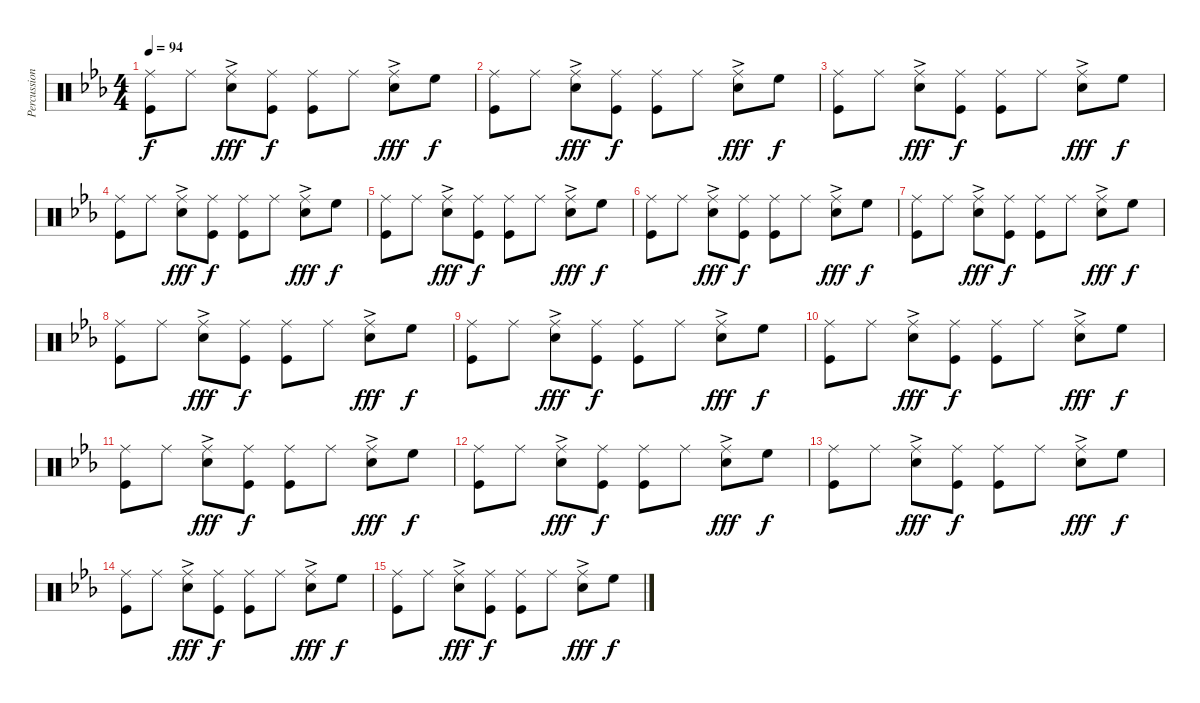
\track ("Percussion" "Percussion") {instrument percussion}
\staff {score}
\articulation defaults
\ts (4 4)
\tempo 94
\clef neutral
\ks eb
("Ride (middle)" "Kick (hit)").8{dy f} "Ride (middle)".8 ("Ride (middle)"{ac} "Snare (hit) 2"{ac}).8{dy fff} ("Ride (middle)" "Kick (hit)").8{dy f} ("Ride (middle)" "Kick (hit)").8 "Ride (middle)".8 ("Ride (middle)"{ac} "Snare (hit) 2"{ac}).8{dy fff} "High Floor Tom (hit)".8{dy f} |
("Ride (middle)" "Kick (hit)").8 "Ride (middle)".8 ("Ride (middle)"{ac} "Snare (hit) 2"{ac}).8{dy fff} ("Ride (middle)" "Kick (hit)").8{dy f} ("Ride (middle)" "Kick (hit)").8 "Ride (middle)".8 ("Ride (middle)"{ac} "Snare (hit) 2"{ac}).8{dy fff} "High Floor Tom (hit)".8{dy f} |
("Ride (middle)" "Kick (hit)").8 "Ride (middle)".8 ("Ride (middle)"{ac} "Snare (hit) 2"{ac}).8{dy fff} ("Ride (middle)" "Kick (hit)").8{dy f} ("Ride (middle)" "Kick (hit)").8 "Ride (middle)".8 ("Ride (middle)"{ac} "Snare (hit) 2"{ac}).8{dy fff} "High Floor Tom (hit)".8{dy f} |
("Ride (middle)" "Kick (hit)").8 "Ride (middle)".8 ("Ride (middle)"{ac} "Snare (hit) 2"{ac}).8{dy fff} ("Ride (middle)" "Kick (hit)").8{dy f} ("Ride (middle)" "Kick (hit)").8 "Ride (middle)".8 ("Ride (middle)"{ac} "Snare (hit) 2"{ac}).8{dy fff} "High Floor Tom (hit)".8{dy f} |
("Ride (middle)" "Kick (hit)").8 "Ride (middle)".8 ("Ride (middle)"{ac} "Snare (hit) 2"{ac}).8{dy fff} ("Ride (middle)" "Kick (hit)").8{dy f} ("Ride (middle)" "Kick (hit)").8 "Ride (middle)".8 ("Ride (middle)"{ac} "Snare (hit) 2"{ac}).8{dy fff} "High Floor Tom (hit)".8{dy f} |
("Ride (middle)" "Kick (hit)").8 "Ride (middle)".8 ("Ride (middle)"{ac} "Snare (hit) 2"{ac}).8{dy fff} ("Ride (middle)" "Kick (hit)").8{dy f} ("Ride (middle)" "Kick (hit)").8 "Ride (middle)".8 ("Ride (middle)"{ac} "Snare (hit) 2"{ac}).8{dy fff} "High Floor Tom (hit)".8{dy f} |
("Ride (middle)" "Kick (hit)").8 "Ride (middle)".8 ("Ride (middle)"{ac} "Snare (hit) 2"{ac}).8{dy fff} ("Ride (middle)" "Kick (hit)").8{dy f} ("Ride (middle)" "Kick (hit)").8 "Ride (middle)".8 ("Ride (middle)"{ac} "Snare (hit) 2"{ac}).8{dy fff} "High Floor Tom (hit)".8{dy f} |
("Ride (middle)" "Kick (hit)").8 "Ride (middle)".8 ("Ride (middle)"{ac} "Snare (hit) 2"{ac}).8{dy fff} ("Ride (middle)" "Kick (hit)").8{dy f} ("Ride (middle)" "Kick (hit)").8 "Ride (middle)".8 ("Ride (middle)"{ac} "Snare (hit) 2"{ac}).8{dy fff} "High Floor Tom (hit)".8{dy f} |
("Ride (middle)" "Kick (hit)").8 "Ride (middle)".8 ("Ride (middle)"{ac} "Snare (hit) 2"{ac}).8{dy fff} ("Ride (middle)" "Kick (hit)").8{dy f} ("Ride (middle)" "Kick (hit)").8 "Ride (middle)".8 ("Ride (middle)"{ac} "Snare (hit) 2"{ac}).8{dy fff} "High Floor Tom (hit)".8{dy f} |
("Ride (middle)" "Kick (hit)").8 "Ride (middle)".8 ("Ride (middle)"{ac} "Snare (hit) 2"{ac}).8{dy fff} ("Ride (middle)" "Kick (hit)").8{dy f} ("Ride (middle)" "Kick (hit)").8 "Ride (middle)".8 ("Ride (middle)"{ac} "Snare (hit) 2"{ac}).8{dy fff} "High Floor Tom (hit)".8{dy f} |
("Ride (middle)" "Kick (hit)").8 "Ride (middle)".8 ("Ride (middle)"{ac} "Snare (hit) 2"{ac}).8{dy fff} ("Ride (middle)" "Kick (hit)").8{dy f} ("Ride (middle)" "Kick (hit)").8 "Ride (middle)".8 ("Ride (middle)"{ac} "Snare (hit) 2"{ac}).8{dy fff} "High Floor Tom (hit)".8{dy f} |
("Ride (middle)" "Kick (hit)").8 "Ride (middle)".8 ("Ride (middle)"{ac} "Snare (hit) 2"{ac}).8{dy fff} ("Ride (middle)" "Kick (hit)").8{dy f} ("Ride (middle)" "Kick (hit)").8 "Ride (middle)".8 ("Ride (middle)"{ac} "Snare (hit) 2"{ac}).8{dy fff} "High Floor Tom (hit)".8{dy f} |
("Ride (middle)" "Kick (hit)").8 "Ride (middle)".8 ("Ride (middle)"{ac} "Snare (hit) 2"{ac}).8{dy fff} ("Ride (middle)" "Kick (hit)").8{dy f} ("Ride (middle)" "Kick (hit)").8 "Ride (middle)".8 ("Ride (middle)"{ac} "Snare (hit) 2"{ac}).8{dy fff} "High Floor Tom (hit)".8{dy f} |
("Ride (middle)" "Kick (hit)").8 "Ride (middle)".8 ("Ride (middle)"{ac} "Snare (hit) 2"{ac}).8{dy fff} ("Ride (middle)" "Kick (hit)").8{dy f} ("Ride (middle)" "Kick (hit)").8 "Ride (middle)".8 ("Ride (middle)"{ac} "Snare (hit) 2"{ac}).8{dy fff} "High Floor Tom (hit)".8{dy f} |
("Ride (middle)" "Kick (hit)").8 "Ride (middle)".8 ("Ride (middle)"{ac} "Snare (hit) 2"{ac}).8{dy fff} ("Ride (middle)" "Kick (hit)").8{dy f} ("Ride (middle)" "Kick (hit)").8 "Ride (middle)".8 ("Ride (middle)"{ac} "Snare (hit) 2"{ac}).8{dy fff} "High Floor Tom (hit)".8{dy f}
